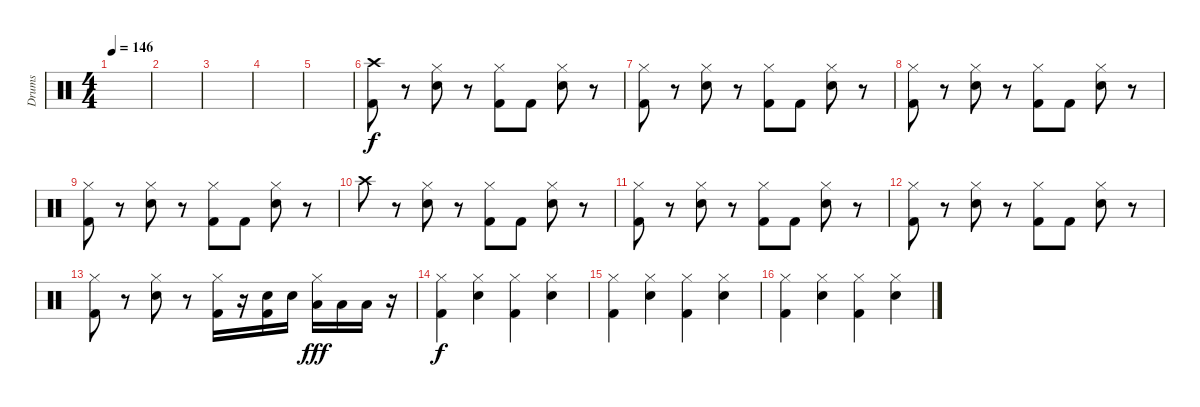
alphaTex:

\track ("Drums" "Drums") {instrument percussion}
\staff {score}
\articulation defaults
\ts (4 4)
\tempo 146
\clef neutral
\ks c
|
|
|
|
|
("Crash high (hit)" "Kick (hit) 2").8 r.8 ("Hi-Hat (closed)" "Snare (hit) 2").8 r.8 ("Hi-Hat (closed)" "Kick (hit) 2").8 "Kick (hit) 2".8 ("Hi-Hat (closed)" "Snare (hit) 2").8 r.8 |
("Hi-Hat (closed)" "Kick (hit) 2").8 r.8 ("Hi-Hat (closed)" "Snare (hit) 2").8 r.8 ("Hi-Hat (closed)" "Kick (hit) 2").8 "Kick (hit) 2".8 ("Hi-Hat (closed)" "Snare (hit) 2").8 r.8 |
("Hi-Hat (closed)" "Kick (hit) 2").8 r.8 ("Hi-Hat (closed)" "Snare (hit) 2").8 r.8 ("Hi-Hat (closed)" "Kick (hit) 2").8 "Kick (hit) 2".8 ("Hi-Hat (closed)" "Snare (hit) 2").8 r.8 |
("Hi-Hat (closed)" "Kick (hit) 2").8 r.8 ("Hi-Hat (closed)" "Snare (hit) 2").8 r.8 ("Hi-Hat (closed)" "Kick (hit) 2").8 "Kick (hit) 2".8 ("Hi-Hat (closed)" "Snare (hit) 2").8 r.8 |
"Crash high (hit)".8 r.8 ("Hi-Hat (closed)" "Snare (hit) 2").8 r.8 ("Hi-Hat (closed)" "Kick (hit) 2").8 "Kick (hit) 2".8 ("Hi-Hat (closed)" "Snare (hit) 2").8 r.8 |
("Hi-Hat (closed)" "Kick (hit) 2").8 r.8 ("Hi-Hat (closed)" "Snare (hit) 2").8 r.8 ("Hi-Hat (closed)" "Kick (hit) 2").8 "Kick (hit) 2".8 ("Hi-Hat (closed)" "Snare (hit) 2").8 r.8 |
("Hi-Hat (closed)" "Kick (hit) 2").8 r.8 ("Hi-Hat (closed)" "Snare (hit) 2").8 r.8 ("Hi-Hat (closed)" "Kick (hit) 2").8 "Kick (hit) 2".8 ("Hi-Hat (closed)" "Snare (hit) 2").8 r.8 |
("Hi-Hat (closed)" "Kick (hit) 2").8 r.8 ("Hi-Hat (closed)" "Snare (hit) 2").8 r.8 ("Hi-Hat (closed)" "Kick (hit) 2").16 r.16 ("Snare (hit) 2" "Kick (hit) 2").16 "Snare (hit) 2".16 ("Hi-Hat (closed)" "Low Tom (hit)").16{dy fff} "Low Tom (hit)".16 "Low Floor Tom (hit)".16 r.16 |
("Hi-Hat (closed)" "Kick (hit) 2").4{dy f} ("Hi-Hat (closed)" "Snare (hit) 2").4 ("Hi-Hat (closed)" "Kick (hit) 2").4 ("Hi-Hat (closed)" "Snare (hit) 2").4 |
("Hi-Hat (closed)" "Kick (hit) 2").4 ("Hi-Hat (closed)" "Snare (hit) 2").4 ("Hi-Hat (closed)" "Kick (hit) 2").4 ("Hi-Hat (closed)" "Snare (hit) 2").4 |
("Hi-Hat (closed)" "Kick (hit) 2").4 ("Hi-Hat (closed)" "Snare (hit) 2").4 ("Hi-Hat (closed)" "Kick (hit) 2").4 ("Hi-Hat (closed)" "Snare (hit) 2").4
